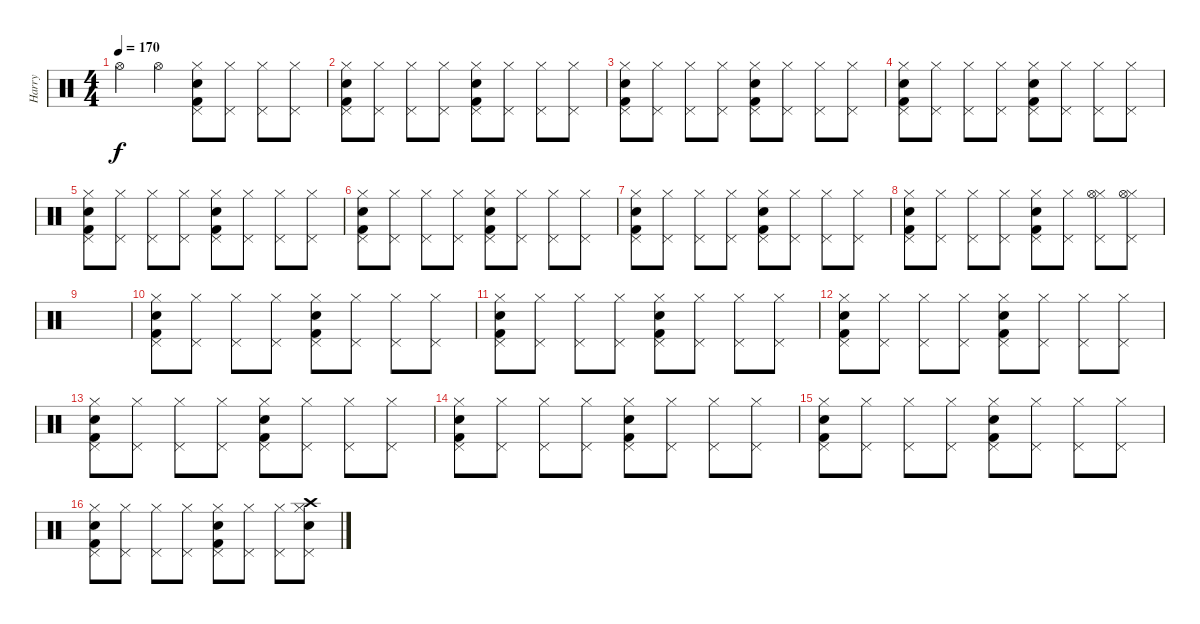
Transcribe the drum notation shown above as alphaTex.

\track ("Harry" "Harry") {instrument percussion}
\staff {score}
\articulation defaults
\ts (4 4)
\tempo 170
\clef neutral
\ks c "Hi-Hat (open)".4{dy f} "Hi-Hat (open)".4
("Hi-Hat (closed)" "Pedal Hi-Hat (hit)" "Kick (hit) 2" "Snare (hit) 2").8 ("Hi-Hat (closed)" "Pedal Hi-Hat (hit)").8 ("Hi-Hat (closed)" "Pedal Hi-Hat (hit)").8 ("Hi-Hat (closed)" "Pedal Hi-Hat (hit)").8 |
("Hi-Hat (closed)" "Pedal Hi-Hat (hit)" "Kick (hit) 2" "Snare (hit) 2").8 ("Hi-Hat (closed)" "Pedal Hi-Hat (hit)").8 ("Hi-Hat (closed)" "Pedal Hi-Hat (hit)").8 ("Hi-Hat (closed)" "Pedal Hi-Hat (hit)").8 ("Hi-Hat (closed)" "Pedal Hi-Hat (hit)" "Kick (hit) 2" "Snare (hit) 2").8 ("Hi-Hat (closed)" "Pedal Hi-Hat (hit)").8 ("Hi-Hat (closed)" "Pedal Hi-Hat (hit)").8 ("Hi-Hat (closed)" "Pedal Hi-Hat (hit)").8 |
("Hi-Hat (closed)" "Pedal Hi-Hat (hit)" "Kick (hit) 2" "Snare (hit) 2").8 ("Hi-Hat (closed)" "Pedal Hi-Hat (hit)").8 ("Hi-Hat (closed)" "Pedal Hi-Hat (hit)").8 ("Hi-Hat (closed)" "Pedal Hi-Hat (hit)").8 ("Hi-Hat (closed)" "Pedal Hi-Hat (hit)" "Kick (hit) 2" "Snare (hit) 2").8 ("Hi-Hat (closed)" "Pedal Hi-Hat (hit)").8 ("Hi-Hat (closed)" "Pedal Hi-Hat (hit)").8 ("Hi-Hat (closed)" "Pedal Hi-Hat (hit)").8 |
("Hi-Hat (closed)" "Pedal Hi-Hat (hit)" "Kick (hit) 2" "Snare (hit) 2").8 ("Hi-Hat (closed)" "Pedal Hi-Hat (hit)").8 ("Hi-Hat (closed)" "Pedal Hi-Hat (hit)").8 ("Hi-Hat (closed)" "Pedal Hi-Hat (hit)").8 ("Hi-Hat (closed)" "Pedal Hi-Hat (hit)" "Kick (hit) 2" "Snare (hit) 2").8 ("Hi-Hat (closed)" "Pedal Hi-Hat (hit)").8 ("Hi-Hat (closed)" "Pedal Hi-Hat (hit)").8 ("Hi-Hat (closed)" "Pedal Hi-Hat (hit)").8 |
("Hi-Hat (closed)" "Pedal Hi-Hat (hit)" "Kick (hit) 2" "Snare (hit) 2").8 ("Hi-Hat (closed)" "Pedal Hi-Hat (hit)").8 ("Hi-Hat (closed)" "Pedal Hi-Hat (hit)").8 ("Hi-Hat (closed)" "Pedal Hi-Hat (hit)").8 ("Hi-Hat (closed)" "Pedal Hi-Hat (hit)" "Kick (hit) 2" "Snare (hit) 2").8 ("Hi-Hat (closed)" "Pedal Hi-Hat (hit)").8 ("Hi-Hat (closed)" "Pedal Hi-Hat (hit)").8 ("Hi-Hat (closed)" "Pedal Hi-Hat (hit)").8 |
("Hi-Hat (closed)" "Pedal Hi-Hat (hit)" "Kick (hit) 2" "Snare (hit) 2").8 ("Hi-Hat (closed)" "Pedal Hi-Hat (hit)").8 ("Hi-Hat (closed)" "Pedal Hi-Hat (hit)").8 ("Hi-Hat (closed)" "Pedal Hi-Hat (hit)").8 ("Hi-Hat (closed)" "Pedal Hi-Hat (hit)" "Kick (hit) 2" "Snare (hit) 2").8 ("Hi-Hat (closed)" "Pedal Hi-Hat (hit)").8 ("Hi-Hat (closed)" "Pedal Hi-Hat (hit)").8 ("Hi-Hat (closed)" "Pedal Hi-Hat (hit)").8 |
("Hi-Hat (closed)" "Pedal Hi-Hat (hit)" "Kick (hit) 2" "Snare (hit) 2").8 ("Hi-Hat (closed)" "Pedal Hi-Hat (hit)").8 ("Hi-Hat (closed)" "Pedal Hi-Hat (hit)").8 ("Hi-Hat (closed)" "Pedal Hi-Hat (hit)").8 ("Hi-Hat (closed)" "Pedal Hi-Hat (hit)" "Kick (hit) 2" "Snare (hit) 2").8 ("Hi-Hat (closed)" "Pedal Hi-Hat (hit)").8 ("Hi-Hat (closed)" "Pedal Hi-Hat (hit)").8 ("Hi-Hat (closed)" "Pedal Hi-Hat (hit)").8 |
("Hi-Hat (closed)" "Pedal Hi-Hat (hit)" "Kick (hit) 2" "Snare (hit) 2").8 ("Hi-Hat (closed)" "Pedal Hi-Hat (hit)").8 ("Hi-Hat (closed)" "Pedal Hi-Hat (hit)").8 ("Hi-Hat (closed)" "Pedal Hi-Hat (hit)").8 ("Hi-Hat (closed)" "Pedal Hi-Hat (hit)" "Kick (hit) 2" "Snare (hit) 2").8 ("Hi-Hat (closed)" "Pedal Hi-Hat (hit)").8 ("Hi-Hat (closed)" "Pedal Hi-Hat (hit)" "Hi-Hat (open)").8 ("Hi-Hat (closed)" "Pedal Hi-Hat (hit)" "Hi-Hat (open)").8 |
|
("Hi-Hat (closed)" "Pedal Hi-Hat (hit)" "Kick (hit) 2" "Snare (hit) 2").8 ("Hi-Hat (closed)" "Pedal Hi-Hat (hit)").8 ("Hi-Hat (closed)" "Pedal Hi-Hat (hit)").8 ("Hi-Hat (closed)" "Pedal Hi-Hat (hit)").8 ("Hi-Hat (closed)" "Pedal Hi-Hat (hit)" "Kick (hit) 2" "Snare (hit) 2").8 ("Hi-Hat (closed)" "Pedal Hi-Hat (hit)").8 ("Hi-Hat (closed)" "Pedal Hi-Hat (hit)").8 ("Hi-Hat (closed)" "Pedal Hi-Hat (hit)").8 |
("Hi-Hat (closed)" "Pedal Hi-Hat (hit)" "Kick (hit) 2" "Snare (hit) 2").8 ("Hi-Hat (closed)" "Pedal Hi-Hat (hit)").8 ("Hi-Hat (closed)" "Pedal Hi-Hat (hit)").8 ("Hi-Hat (closed)" "Pedal Hi-Hat (hit)").8 ("Hi-Hat (closed)" "Pedal Hi-Hat (hit)" "Kick (hit) 2" "Snare (hit) 2").8 ("Hi-Hat (closed)" "Pedal Hi-Hat (hit)").8 ("Hi-Hat (closed)" "Pedal Hi-Hat (hit)").8 ("Hi-Hat (closed)" "Pedal Hi-Hat (hit)").8 |
("Hi-Hat (closed)" "Pedal Hi-Hat (hit)" "Kick (hit) 2" "Snare (hit) 2").8 ("Hi-Hat (closed)" "Pedal Hi-Hat (hit)").8 ("Hi-Hat (closed)" "Pedal Hi-Hat (hit)").8 ("Hi-Hat (closed)" "Pedal Hi-Hat (hit)").8 ("Hi-Hat (closed)" "Pedal Hi-Hat (hit)" "Kick (hit) 2" "Snare (hit) 2").8 ("Hi-Hat (closed)" "Pedal Hi-Hat (hit)").8 ("Hi-Hat (closed)" "Pedal Hi-Hat (hit)").8 ("Hi-Hat (closed)" "Pedal Hi-Hat (hit)").8 |
("Hi-Hat (closed)" "Pedal Hi-Hat (hit)" "Kick (hit) 2" "Snare (hit) 2").8 ("Hi-Hat (closed)" "Pedal Hi-Hat (hit)").8 ("Hi-Hat (closed)" "Pedal Hi-Hat (hit)").8 ("Hi-Hat (closed)" "Pedal Hi-Hat (hit)").8 ("Hi-Hat (closed)" "Pedal Hi-Hat (hit)" "Kick (hit) 2" "Snare (hit) 2").8 ("Hi-Hat (closed)" "Pedal Hi-Hat (hit)").8 ("Hi-Hat (closed)" "Pedal Hi-Hat (hit)").8 ("Hi-Hat (closed)" "Pedal Hi-Hat (hit)").8 |
("Hi-Hat (closed)" "Pedal Hi-Hat (hit)" "Kick (hit) 2" "Snare (hit) 2").8 ("Hi-Hat (closed)" "Pedal Hi-Hat (hit)").8 ("Hi-Hat (closed)" "Pedal Hi-Hat (hit)").8 ("Hi-Hat (closed)" "Pedal Hi-Hat (hit)").8 ("Hi-Hat (closed)" "Pedal Hi-Hat (hit)" "Kick (hit) 2" "Snare (hit) 2").8 ("Hi-Hat (closed)" "Pedal Hi-Hat (hit)").8 ("Hi-Hat (closed)" "Pedal Hi-Hat (hit)").8 ("Hi-Hat (closed)" "Pedal Hi-Hat (hit)").8 |
("Hi-Hat (closed)" "Pedal Hi-Hat (hit)" "Kick (hit) 2" "Snare (hit) 2").8 ("Hi-Hat (closed)" "Pedal Hi-Hat (hit)").8 ("Hi-Hat (closed)" "Pedal Hi-Hat (hit)").8 ("Hi-Hat (closed)" "Pedal Hi-Hat (hit)").8 ("Hi-Hat (closed)" "Pedal Hi-Hat (hit)" "Kick (hit) 2" "Snare (hit) 2").8 ("Hi-Hat (closed)" "Pedal Hi-Hat (hit)").8 ("Hi-Hat (closed)" "Pedal Hi-Hat (hit)").8 ("Hi-Hat (closed)" "Pedal Hi-Hat (hit)").8 |
("Hi-Hat (closed)" "Pedal Hi-Hat (hit)" "Kick (hit) 2" "Snare (hit) 2").8 ("Hi-Hat (closed)" "Pedal Hi-Hat (hit)").8 ("Hi-Hat (closed)" "Pedal Hi-Hat (hit)").8 ("Hi-Hat (closed)" "Pedal Hi-Hat (hit)").8 ("Hi-Hat (closed)" "Pedal Hi-Hat (hit)" "Kick (hit) 2" "Snare (hit) 2").8 ("Hi-Hat (closed)" "Pedal Hi-Hat (hit)").8 ("Hi-Hat (closed)" "Pedal Hi-Hat (hit)").8 ("Hi-Hat (closed)" "Pedal Hi-Hat (hit)" "Snare (hit) 2" "Crash high (hit)").8
